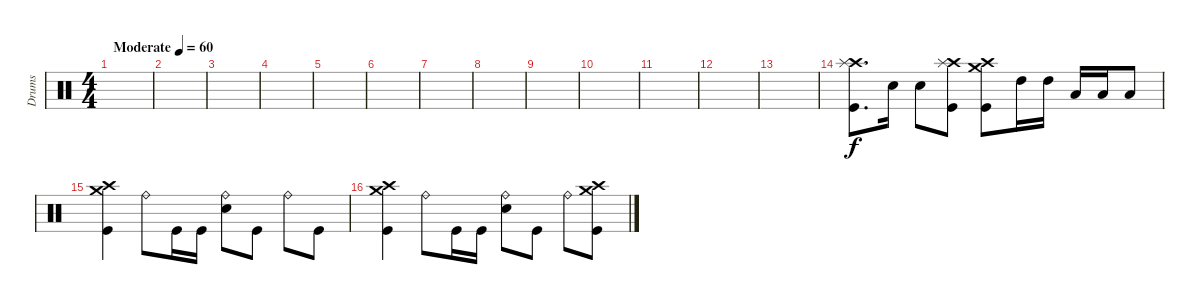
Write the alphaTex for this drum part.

\track ("Drums" "Drums") {instrument percussion}
\staff {score}
\articulation defaults
\ts (4 4)
\tempo (60 "Moderate")
\clef neutral
\ks c
|
|
|
|
|
|
|
|
|
|
|
|
|
("Crash high (hit)" "Splash (hit)" "Kick (hit)").8{d} "Electric Snare (hit)".16 "Electric Snare (hit)".8 ("Crash high (hit)" "Splash (hit)" "Kick (hit)").8 ("Crash high (hit)" "Crash medium (hit)" "Kick (hit)").8 "High Tom (hit)".16 "High Tom (hit)".16 "Low Tom (hit)".16 "Low Tom (hit)".16 "Low Floor Tom (hit)".8 |
("Crash high (hit)" "Crash medium (hit)" "Kick (hit)").4 "Ride (bell)".8 "Kick (hit)".16 "Kick (hit)".16 ("Ride (bell)" "Electric Snare (hit)").8 "Kick (hit)".8 "Ride (bell)".8 "Kick (hit)".8 |
("Crash high (hit)" "Crash medium (hit)" "Kick (hit)").4 "Ride (bell)".8 "Kick (hit)".16 "Kick (hit)".16 ("Ride (bell)" "Electric Snare (hit)").8 "Kick (hit)".8 "Ride (bell)".8 ("Crash high (hit)" "Crash medium (hit)" "Kick (hit)").8
